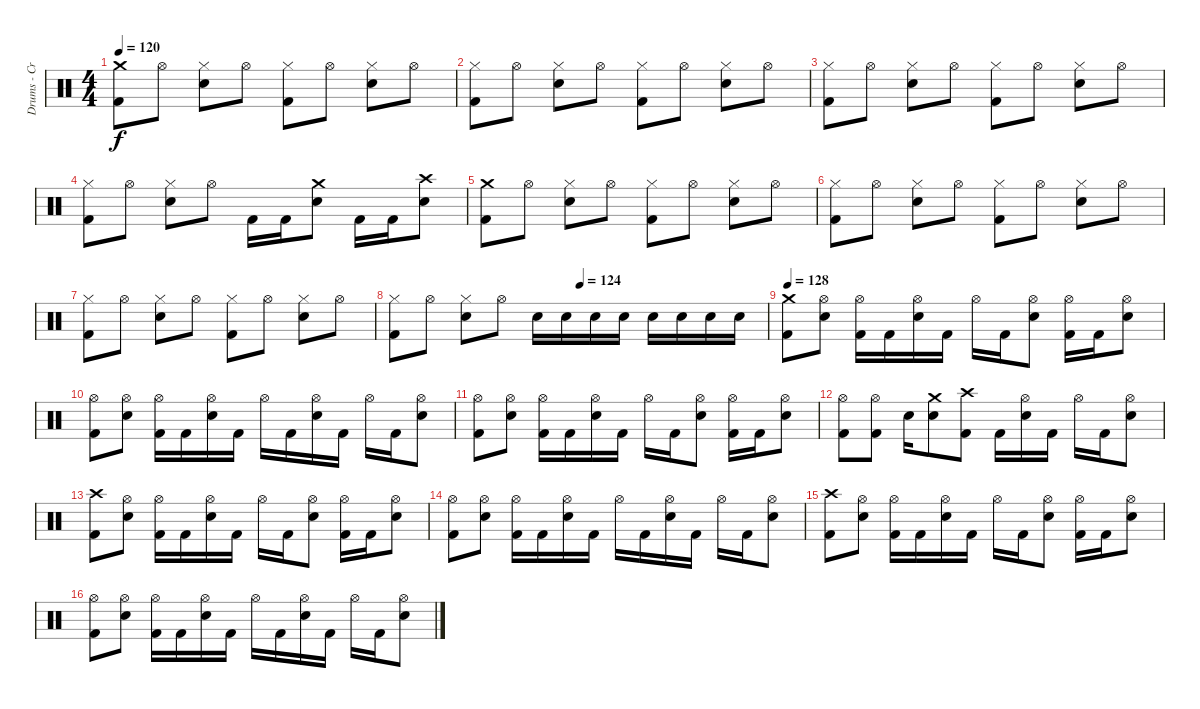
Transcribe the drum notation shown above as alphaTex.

\track ("Drums - Cris Knapp" "Drums - Cr") {instrument percussion}
\staff {score}
\articulation defaults
\ts (4 4)
\tempo 120
\clef neutral
\ks c
("Kick (hit) 2" "Crash medium (hit)").8{dy f} "Hi-Hat (open)".8 ("Electric Snare (hit)" "Hi-Hat (closed)").8 "Hi-Hat (open)".8 ("Kick (hit) 2" "Hi-Hat (closed)").8 "Hi-Hat (open)".8 ("Electric Snare (hit)" "Hi-Hat (closed)").8 "Hi-Hat (open)".8 |
("Kick (hit) 2" "Hi-Hat (closed)").8 "Hi-Hat (open)".8 ("Electric Snare (hit)" "Hi-Hat (closed)").8 "Hi-Hat (open)".8 ("Kick (hit) 2" "Hi-Hat (closed)").8 "Hi-Hat (open)".8 ("Electric Snare (hit)" "Hi-Hat (closed)").8 "Hi-Hat (open)".8 |
("Kick (hit) 2" "Hi-Hat (closed)").8 "Hi-Hat (open)".8 ("Electric Snare (hit)" "Hi-Hat (closed)").8 "Hi-Hat (open)".8 ("Kick (hit) 2" "Hi-Hat (closed)").8 "Hi-Hat (open)".8 ("Electric Snare (hit)" "Hi-Hat (closed)").8 "Hi-Hat (open)".8 |
("Kick (hit) 2" "Hi-Hat (closed)").8 "Hi-Hat (open)".8 ("Electric Snare (hit)" "Hi-Hat (closed)").8 "Hi-Hat (open)".8 "Kick (hit) 2".16 "Kick (hit) 2".16 ("Electric Snare (hit)" "Crash medium (hit)").8 "Kick (hit) 2".16 "Kick (hit) 2".16 ("Electric Snare (hit)" "Crash high (hit)").8 |
("Kick (hit) 2" "Crash medium (hit)").8 "Hi-Hat (open)".8 ("Electric Snare (hit)" "Hi-Hat (closed)").8 "Hi-Hat (open)".8 ("Kick (hit) 2" "Hi-Hat (closed)").8 "Hi-Hat (open)".8 ("Electric Snare (hit)" "Hi-Hat (closed)").8 "Hi-Hat (open)".8 |
("Kick (hit) 2" "Hi-Hat (closed)").8 "Hi-Hat (open)".8 ("Electric Snare (hit)" "Hi-Hat (closed)").8 "Hi-Hat (open)".8 ("Kick (hit) 2" "Hi-Hat (closed)").8 "Hi-Hat (open)".8 ("Electric Snare (hit)" "Hi-Hat (closed)").8 "Hi-Hat (open)".8 |
("Kick (hit) 2" "Hi-Hat (closed)").8 "Hi-Hat (open)".8 ("Electric Snare (hit)" "Hi-Hat (closed)").8 "Hi-Hat (open)".8 ("Kick (hit) 2" "Hi-Hat (closed)").8 "Hi-Hat (open)".8 ("Electric Snare (hit)" "Hi-Hat (closed)").8 "Hi-Hat (open)".8 |
\tempo (124 0.5)
("Kick (hit) 2" "Hi-Hat (closed)").8 "Hi-Hat (open)".8 ("Electric Snare (hit)" "Hi-Hat (closed)").8 "Hi-Hat (open)".8 "Electric Snare (hit)".16 "Electric Snare (hit)".16 "Electric Snare (hit)".16 "Electric Snare (hit)".16 "Electric Snare (hit)".16 "Electric Snare (hit)".16 "Electric Snare (hit)".16 "Electric Snare (hit)".16 |
\tempo 128
("Kick (hit) 2" "Crash medium (hit)").8 ("Electric Snare (hit)" "Hi-Hat (open)").8 ("Kick (hit) 2" "Hi-Hat (open)").16 "Kick (hit) 2".16 ("Electric Snare (hit)" "Hi-Hat (open)").16 "Kick (hit) 2".16 "Hi-Hat (open)".16 "Kick (hit) 2".16 ("Electric Snare (hit)" "Hi-Hat (open)").8 ("Kick (hit) 2" "Hi-Hat (open)").16 "Kick (hit) 2".16 ("Electric Snare (hit)" "Hi-Hat (open)").8 |
("Kick (hit) 2" "Hi-Hat (open)").8 ("Electric Snare (hit)" "Hi-Hat (open)").8 ("Kick (hit) 2" "Hi-Hat (open)").16 "Kick (hit) 2".16 ("Electric Snare (hit)" "Hi-Hat (open)").16 "Kick (hit) 2".16 "Hi-Hat (open)".16 "Kick (hit) 2".16 ("Electric Snare (hit)" "Hi-Hat (open)").16 "Kick (hit) 2".16 "Hi-Hat (open)".16 "Kick (hit) 2".16 ("Electric Snare (hit)" "Hi-Hat (open)").8 |
("Kick (hit) 2" "Hi-Hat (open)").8 ("Electric Snare (hit)" "Hi-Hat (open)").8 ("Kick (hit) 2" "Hi-Hat (open)").16 "Kick (hit) 2".16 ("Electric Snare (hit)" "Hi-Hat (open)").16 "Kick (hit) 2".16 "Hi-Hat (open)".16 "Kick (hit) 2".16 ("Electric Snare (hit)" "Hi-Hat (open)").8 ("Kick (hit) 2" "Hi-Hat (open)").16 "Kick (hit) 2".16 ("Electric Snare (hit)" "Hi-Hat (open)").8 |
("Kick (hit) 2" "Hi-Hat (open)").8 ("Kick (hit) 2" "Hi-Hat (open)").8 "Electric Snare (hit)".16 ("Electric Snare (hit)" "Crash medium (hit)").8 ("Kick (hit) 2" "Crash high (hit)").8 "Kick (hit) 2".16 ("Electric Snare (hit)" "Hi-Hat (open)").16 "Kick (hit) 2".16 "Hi-Hat (open)".16 "Kick (hit) 2".16 ("Electric Snare (hit)" "Hi-Hat (open)").8 |
("Kick (hit) 2" "Crash high (hit)").8 ("Electric Snare (hit)" "Hi-Hat (open)").8 ("Kick (hit) 2" "Hi-Hat (open)").16 "Kick (hit) 2".16 ("Electric Snare (hit)" "Hi-Hat (open)").16 "Kick (hit) 2".16 "Hi-Hat (open)".16 "Kick (hit) 2".16 ("Electric Snare (hit)" "Hi-Hat (open)").8 ("Kick (hit) 2" "Hi-Hat (open)").16 "Kick (hit) 2".16 ("Electric Snare (hit)" "Hi-Hat (open)").8 |
("Kick (hit) 2" "Hi-Hat (open)").8 ("Electric Snare (hit)" "Hi-Hat (open)").8 ("Kick (hit) 2" "Hi-Hat (open)").16 "Kick (hit) 2".16 ("Electric Snare (hit)" "Hi-Hat (open)").16 "Kick (hit) 2".16 "Hi-Hat (open)".16 "Kick (hit) 2".16 ("Electric Snare (hit)" "Hi-Hat (open)").16 "Kick (hit) 2".16 "Hi-Hat (open)".16 "Kick (hit) 2".16 ("Electric Snare (hit)" "Hi-Hat (open)").8 |
("Kick (hit) 2" "Crash high (hit)").8 ("Electric Snare (hit)" "Hi-Hat (open)").8 ("Kick (hit) 2" "Hi-Hat (open)").16 "Kick (hit) 2".16 ("Electric Snare (hit)" "Hi-Hat (open)").16 "Kick (hit) 2".16 "Hi-Hat (open)".16 "Kick (hit) 2".16 ("Electric Snare (hit)" "Hi-Hat (open)").8 ("Kick (hit) 2" "Hi-Hat (open)").16 "Kick (hit) 2".16 ("Electric Snare (hit)" "Hi-Hat (open)").8 |
("Kick (hit) 2" "Hi-Hat (open)").8 ("Electric Snare (hit)" "Hi-Hat (open)").8 ("Kick (hit) 2" "Hi-Hat (open)").16 "Kick (hit) 2".16 ("Electric Snare (hit)" "Hi-Hat (open)").16 "Kick (hit) 2".16 "Hi-Hat (open)".16 "Kick (hit) 2".16 ("Electric Snare (hit)" "Hi-Hat (open)").16 "Kick (hit) 2".16 "Hi-Hat (open)".16 "Kick (hit) 2".16 ("Electric Snare (hit)" "Hi-Hat (open)").8
